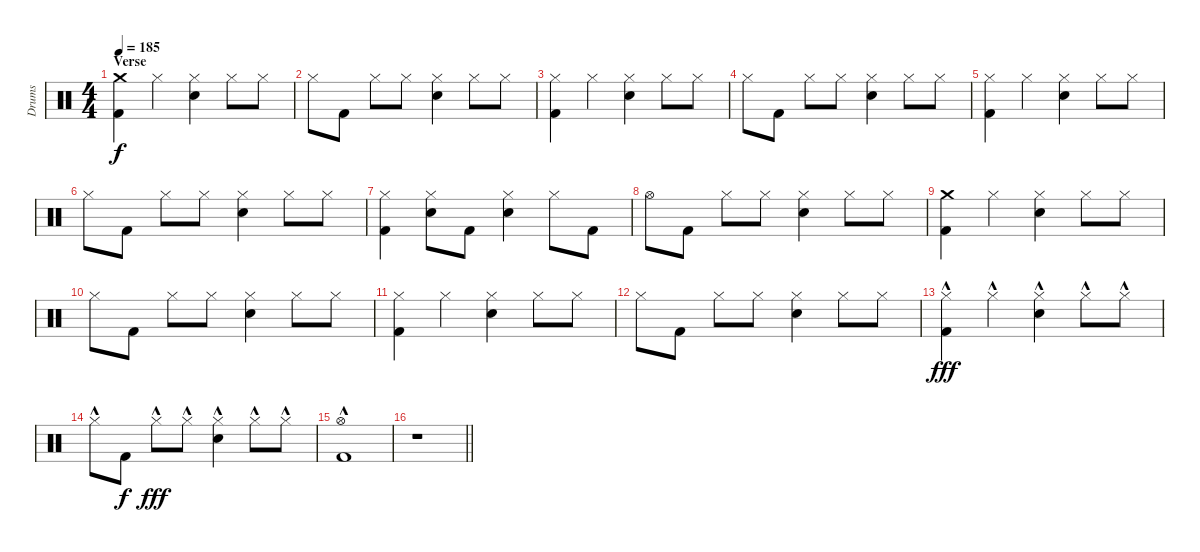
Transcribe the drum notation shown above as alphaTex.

\track ("Drums" "Drums") {instrument percussion}
\staff {score}
\articulation defaults
\ts (4 4)
\section ("" "Verse")
\tempo 185
\clef neutral
\ks c
("Crash medium (hit)" "Kick (hit) 2").4{dy f} "Hi-Hat (closed)".4 ("Hi-Hat (closed)" "Electric Snare (hit)").4 "Hi-Hat (closed)".8 "Hi-Hat (closed)".8 |
"Hi-Hat (closed)".8 "Kick (hit) 2".8 "Hi-Hat (closed)".8 "Hi-Hat (closed)".8 ("Hi-Hat (closed)" "Electric Snare (hit)").4 "Hi-Hat (closed)".8 "Hi-Hat (closed)".8 |
("Hi-Hat (closed)" "Kick (hit) 2").4 "Hi-Hat (closed)".4 ("Hi-Hat (closed)" "Electric Snare (hit)").4 "Hi-Hat (closed)".8 "Hi-Hat (closed)".8 |
"Hi-Hat (closed)".8 "Kick (hit) 2".8 "Hi-Hat (closed)".8 "Hi-Hat (closed)".8 ("Hi-Hat (closed)" "Electric Snare (hit)").4 "Hi-Hat (closed)".8 "Hi-Hat (closed)".8 |
("Hi-Hat (closed)" "Kick (hit) 2").4 "Hi-Hat (closed)".4 ("Hi-Hat (closed)" "Electric Snare (hit)").4 "Hi-Hat (closed)".8 "Hi-Hat (closed)".8 |
"Hi-Hat (closed)".8 "Kick (hit) 2".8 "Hi-Hat (closed)".8 "Hi-Hat (closed)".8 ("Hi-Hat (closed)" "Electric Snare (hit)").4 "Hi-Hat (closed)".8 "Hi-Hat (closed)".8 |
("Hi-Hat (closed)" "Kick (hit) 2").4 ("Hi-Hat (closed)" "Electric Snare (hit)").8 "Kick (hit) 2".8 ("Hi-Hat (closed)" "Electric Snare (hit)").4 "Hi-Hat (closed)".8 "Kick (hit) 2".8 |
"Hi-Hat (open)".8 "Kick (hit) 2".8 "Hi-Hat (closed)".8 "Hi-Hat (closed)".8 ("Hi-Hat (closed)" "Electric Snare (hit)").4 "Hi-Hat (closed)".8 "Hi-Hat (closed)".8 |
("Crash medium (hit)" "Kick (hit) 2").4 "Hi-Hat (closed)".4 ("Hi-Hat (closed)" "Electric Snare (hit)").4 "Hi-Hat (closed)".8 "Hi-Hat (closed)".8 |
"Hi-Hat (closed)".8 "Kick (hit) 2".8 "Hi-Hat (closed)".8 "Hi-Hat (closed)".8 ("Hi-Hat (closed)" "Electric Snare (hit)").4 "Hi-Hat (closed)".8 "Hi-Hat (closed)".8 |
("Hi-Hat (closed)" "Kick (hit) 2").4 "Hi-Hat (closed)".4 ("Hi-Hat (closed)" "Electric Snare (hit)").4 "Hi-Hat (closed)".8 "Hi-Hat (closed)".8 |
"Hi-Hat (closed)".8 "Kick (hit) 2".8 "Hi-Hat (closed)".8 "Hi-Hat (closed)".8 ("Hi-Hat (closed)" "Electric Snare (hit)").4 "Hi-Hat (closed)".8 "Hi-Hat (closed)".8 |
("Hi-Hat (closed)"{hac} "Kick (hit) 2").4{dy fff} "Hi-Hat (closed)"{hac}.4 ("Hi-Hat (closed)"{hac} "Electric Snare (hit)").4 "Hi-Hat (closed)"{hac}.8 "Hi-Hat (closed)"{hac}.8 |
"Hi-Hat (closed)"{hac}.8 "Kick (hit) 2".8{dy f} "Hi-Hat (closed)"{hac}.8{dy fff} "Hi-Hat (closed)"{hac}.8 ("Hi-Hat (closed)"{hac} "Electric Snare (hit)").4 "Hi-Hat (closed)"{hac}.8 "Hi-Hat (closed)"{hac}.8 |
("Hi-Hat (open)"{hac} "Kick (hit) 2").1 |
\barLineRight lightlight
r.1
